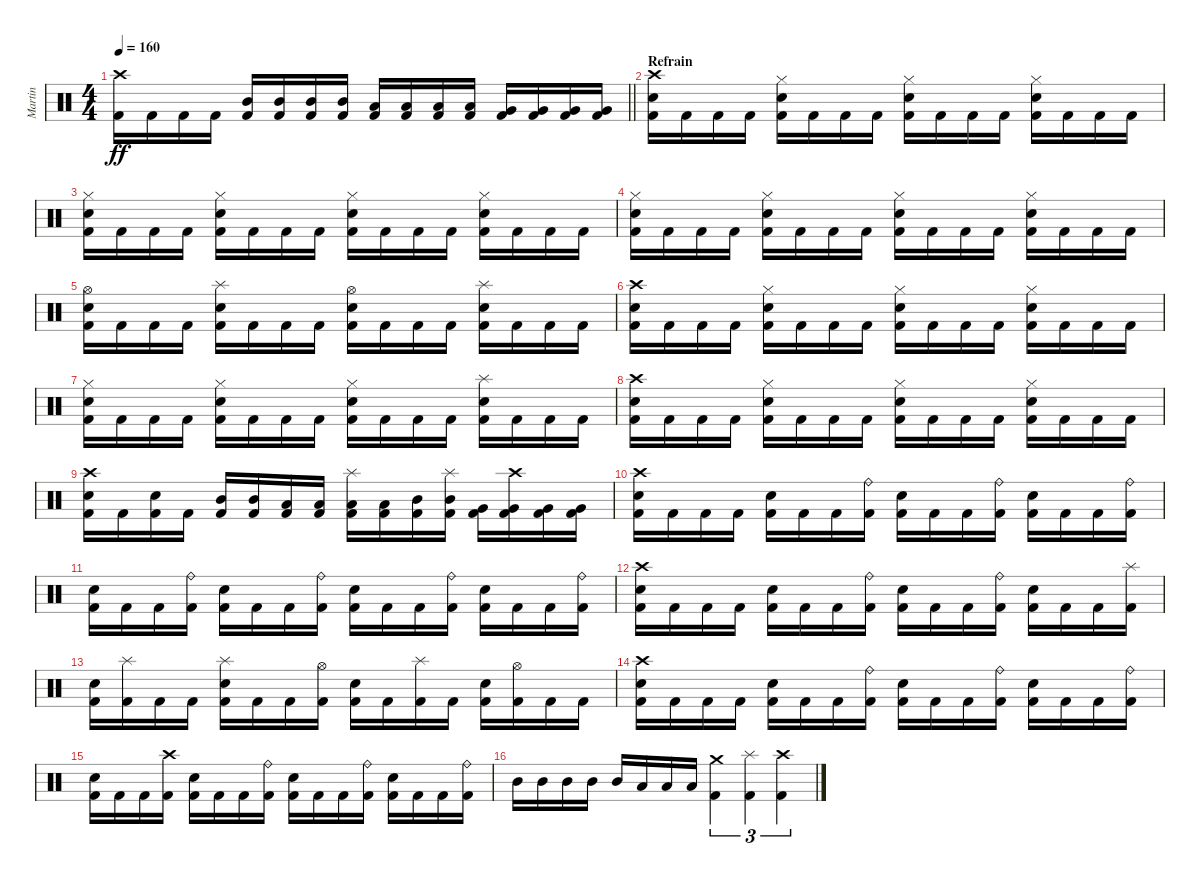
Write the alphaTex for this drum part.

\track ("Martin" "Martin") {instrument percussion}
\staff {score}
\articulation defaults
\ts (4 4)
\tempo 160
\clef neutral
\barLineRight lightlight
\ks c
("Crash high (hit)" "Kick (hit) 2").16{dy ff} "Kick (hit) 2".16 "Kick (hit) 2".16 "Kick (hit) 2".16 ("Mid Tom (hit)" "Kick (hit) 2").16 ("Mid Tom (hit)" "Kick (hit) 2").16 ("Mid Tom (hit)" "Kick (hit) 2").16 ("Mid Tom (hit)" "Kick (hit) 2").16 ("Low Tom (hit)" "Kick (hit) 2").16 ("Low Tom (hit)" "Kick (hit) 2").16 ("Low Tom (hit)" "Kick (hit) 2").16 ("Low Tom (hit)" "Kick (hit) 2").16 ("Very Low Tom (hit)" "Kick (hit) 2").16 ("Very Low Tom (hit)" "Kick (hit) 2").16 ("Very Low Tom (hit)" "Kick (hit) 2").16 ("Very Low Tom (hit)" "Kick (hit) 2").16 |
\section ("" "Refrain")
("Crash high (hit)" "Electric Snare (hit)" "Kick (hit) 2").16 "Kick (hit) 2".16 "Kick (hit) 2".16 "Kick (hit) 2".16 ("Hi-Hat (closed)" "Electric Snare (hit)" "Kick (hit) 2").16 "Kick (hit) 2".16 "Kick (hit) 2".16 "Kick (hit) 2".16 ("Hi-Hat (closed)" "Electric Snare (hit)" "Kick (hit) 2").16 "Kick (hit) 2".16 "Kick (hit) 2".16 "Kick (hit) 2".16 ("Hi-Hat (closed)" "Electric Snare (hit)" "Kick (hit) 2").16 "Kick (hit) 2".16 "Kick (hit) 2".16 "Kick (hit) 2".16 |
("Hi-Hat (closed)" "Electric Snare (hit)" "Kick (hit) 2").16 "Kick (hit) 2".16 "Kick (hit) 2".16 "Kick (hit) 2".16 ("Hi-Hat (closed)" "Electric Snare (hit)" "Kick (hit) 2").16 "Kick (hit) 2".16 "Kick (hit) 2".16 "Kick (hit) 2".16 ("Hi-Hat (closed)" "Electric Snare (hit)" "Kick (hit) 2").16 "Kick (hit) 2".16 "Kick (hit) 2".16 "Kick (hit) 2".16 ("Hi-Hat (closed)" "Electric Snare (hit)" "Kick (hit) 2").16 "Kick (hit) 2".16 "Kick (hit) 2".16 "Kick (hit) 2".16 |
("Hi-Hat (closed)" "Electric Snare (hit)" "Kick (hit) 2").16 "Kick (hit) 2".16 "Kick (hit) 2".16 "Kick (hit) 2".16 ("Hi-Hat (closed)" "Electric Snare (hit)" "Kick (hit) 2").16 "Kick (hit) 2".16 "Kick (hit) 2".16 "Kick (hit) 2".16 ("Hi-Hat (closed)" "Electric Snare (hit)" "Kick (hit) 2").16 "Kick (hit) 2".16 "Kick (hit) 2".16 "Kick (hit) 2".16 ("Hi-Hat (closed)" "Electric Snare (hit)" "Kick (hit) 2").16 "Kick (hit) 2".16 "Kick (hit) 2".16 "Kick (hit) 2".16 |
("Hi-Hat (open)" "Electric Snare (hit)" "Kick (hit) 2").16 "Kick (hit) 2".16 "Kick (hit) 2".16 "Kick (hit) 2".16 ("Splash (hit)" "Electric Snare (hit)" "Kick (hit) 2").16 "Kick (hit) 2".16 "Kick (hit) 2".16 "Kick (hit) 2".16 ("Hi-Hat (open)" "Electric Snare (hit)" "Kick (hit) 2").16 "Kick (hit) 2".16 "Kick (hit) 2".16 "Kick (hit) 2".16 ("Splash (hit)" "Electric Snare (hit)" "Kick (hit) 2").16 "Kick (hit) 2".16 "Kick (hit) 2".16 "Kick (hit) 2".16 |
("Crash high (hit)" "Electric Snare (hit)" "Kick (hit) 2").16 "Kick (hit) 2".16 "Kick (hit) 2".16 "Kick (hit) 2".16 ("Hi-Hat (closed)" "Electric Snare (hit)" "Kick (hit) 2").16 "Kick (hit) 2".16 "Kick (hit) 2".16 "Kick (hit) 2".16 ("Hi-Hat (closed)" "Electric Snare (hit)" "Kick (hit) 2").16 "Kick (hit) 2".16 "Kick (hit) 2".16 "Kick (hit) 2".16 ("Hi-Hat (closed)" "Electric Snare (hit)" "Kick (hit) 2").16 "Kick (hit) 2".16 "Kick (hit) 2".16 "Kick (hit) 2".16 |
("Hi-Hat (closed)" "Electric Snare (hit)" "Kick (hit) 2").16 "Kick (hit) 2".16 "Kick (hit) 2".16 "Kick (hit) 2".16 ("Hi-Hat (closed)" "Electric Snare (hit)" "Kick (hit) 2").16 "Kick (hit) 2".16 "Kick (hit) 2".16 "Kick (hit) 2".16 ("Hi-Hat (closed)" "Electric Snare (hit)" "Kick (hit) 2").16 "Kick (hit) 2".16 "Kick (hit) 2".16 "Kick (hit) 2".16 ("Splash (hit)" "Electric Snare (hit)" "Kick (hit) 2").16 "Kick (hit) 2".16 "Kick (hit) 2".16 "Kick (hit) 2".16 |
("Crash high (hit)" "Electric Snare (hit)" "Kick (hit) 2").16 "Kick (hit) 2".16 "Kick (hit) 2".16 "Kick (hit) 2".16 ("Hi-Hat (closed)" "Electric Snare (hit)" "Kick (hit) 2").16 "Kick (hit) 2".16 "Kick (hit) 2".16 "Kick (hit) 2".16 ("Hi-Hat (closed)" "Electric Snare (hit)" "Kick (hit) 2").16 "Kick (hit) 2".16 "Kick (hit) 2".16 "Kick (hit) 2".16 ("Hi-Hat (closed)" "Electric Snare (hit)" "Kick (hit) 2").16 "Kick (hit) 2".16 "Kick (hit) 2".16 "Kick (hit) 2".16 |
("Crash high (hit)" "Electric Snare (hit)" "Kick (hit) 2").16 "Kick (hit) 2".16 ("Electric Snare (hit)" "Kick (hit) 2").16 "Kick (hit) 2".16 ("Mid Tom (hit)" "Kick (hit) 2").16 ("Mid Tom (hit)" "Kick (hit) 2").16 ("Low Tom (hit)" "Kick (hit) 2").16 ("Low Tom (hit)" "Kick (hit) 2").16 ("Splash (hit)" "Low Tom (hit)" "Kick (hit) 2").16 ("Low Tom (hit)" "Kick (hit) 2").16 ("Mid Tom (hit)" "Kick (hit) 2").16 ("Splash (hit)" "Mid Tom (hit)" "Kick (hit) 2").16 ("Very Low Tom (hit)" "Kick (hit) 2").16 ("Crash high (hit)" "Very Low Tom (hit)" "Kick (hit) 2").16 ("Very Low Tom (hit)" "Kick (hit) 2").16 ("Very Low Tom (hit)" "Kick (hit) 2").16 |
("Crash high (hit)" "Electric Snare (hit)" "Kick (hit) 2").16 "Kick (hit) 2".16 "Kick (hit) 2".16 "Kick (hit) 2".16 ("Electric Snare (hit)" "Kick (hit) 2").16 "Kick (hit) 2".16 "Kick (hit) 2".16 ("Ride (bell)" "Kick (hit) 2").16 ("Electric Snare (hit)" "Kick (hit) 2").16 "Kick (hit) 2".16 "Kick (hit) 2".16 ("Ride (bell)" "Kick (hit) 2").16 ("Electric Snare (hit)" "Kick (hit) 2").16 "Kick (hit) 2".16 "Kick (hit) 2".16 ("Ride (bell)" "Kick (hit) 2").16 |
("Electric Snare (hit)" "Kick (hit) 2").16 "Kick (hit) 2".16 "Kick (hit) 2".16 ("Ride (bell)" "Kick (hit) 2").16 ("Electric Snare (hit)" "Kick (hit) 2").16 "Kick (hit) 2".16 "Kick (hit) 2".16 ("Ride (bell)" "Kick (hit) 2").16 ("Electric Snare (hit)" "Kick (hit) 2").16 "Kick (hit) 2".16 "Kick (hit) 2".16 ("Ride (bell)" "Kick (hit) 2").16 ("Electric Snare (hit)" "Kick (hit) 2").16 "Kick (hit) 2".16 "Kick (hit) 2".16 ("Ride (bell)" "Kick (hit) 2").16 |
("Crash high (hit)" "Electric Snare (hit)" "Kick (hit) 2").16 "Kick (hit) 2".16 "Kick (hit) 2".16 "Kick (hit) 2".16 ("Electric Snare (hit)" "Kick (hit) 2").16 "Kick (hit) 2".16 "Kick (hit) 2".16 ("Ride (bell)" "Kick (hit) 2").16 ("Electric Snare (hit)" "Kick (hit) 2").16 "Kick (hit) 2".16 "Kick (hit) 2".16 ("Ride (bell)" "Kick (hit) 2").16 ("Electric Snare (hit)" "Kick (hit) 2").16 "Kick (hit) 2".16 "Kick (hit) 2".16 ("Splash (hit)" "Kick (hit) 2").16 |
("Electric Snare (hit)" "Kick (hit) 2").16 ("Splash (hit)" "Kick (hit) 2").16 "Kick (hit) 2".16 "Kick (hit) 2".16 ("Splash (hit)" "Electric Snare (hit)" "Kick (hit) 2").16 "Kick (hit) 2".16 "Kick (hit) 2".16 ("Hi-Hat (open)" "Kick (hit) 2").16 ("Electric Snare (hit)" "Kick (hit) 2").16 "Kick (hit) 2".16 ("Splash (hit)" "Kick (hit) 2").16 "Kick (hit) 2".16 ("Electric Snare (hit)" "Kick (hit) 2").16 ("Hi-Hat (open)" "Kick (hit) 2").16 "Kick (hit) 2".16 "Kick (hit) 2".16 |
("Crash high (hit)" "Electric Snare (hit)" "Kick (hit) 2").16 "Kick (hit) 2".16 "Kick (hit) 2".16 "Kick (hit) 2".16 ("Electric Snare (hit)" "Kick (hit) 2").16 "Kick (hit) 2".16 "Kick (hit) 2".16 ("Ride (bell)" "Kick (hit) 2").16 ("Electric Snare (hit)" "Kick (hit) 2").16 "Kick (hit) 2".16 "Kick (hit) 2".16 ("Ride (bell)" "Kick (hit) 2").16 ("Electric Snare (hit)" "Kick (hit) 2").16 "Kick (hit) 2".16 "Kick (hit) 2".16 ("Ride (bell)" "Kick (hit) 2").16 |
("Electric Snare (hit)" "Kick (hit) 2").16 "Kick (hit) 2".16 "Kick (hit) 2".16 ("Crash high (hit)" "Kick (hit) 2").16 ("Electric Snare (hit)" "Kick (hit) 2").16 "Kick (hit) 2".16 "Kick (hit) 2".16 ("Ride (bell)" "Kick (hit) 2").16 ("Electric Snare (hit)" "Kick (hit) 2").16 "Kick (hit) 2".16 "Kick (hit) 2".16 ("Ride (bell)" "Kick (hit) 2").16 ("Electric Snare (hit)" "Kick (hit) 2").16 "Kick (hit) 2".16 "Kick (hit) 2".16 ("Ride (bell)" "Kick (hit) 2").16 |
"Mid Tom (hit)".16 "Mid Tom (hit)".16 "Mid Tom (hit)".16 "Mid Tom (hit)".16 "Mid Tom (hit)".16 "Low Tom (hit)".16 "Low Tom (hit)".16 "Low Tom (hit)".16 ("Crash medium (hit)" "Kick (hit) 2").4{tu (3 2)} ("Splash (hit)" "Kick (hit) 2").4{tu (3 2)} ("Crash high (hit)" "Kick (hit) 2").4{tu (3 2)}
